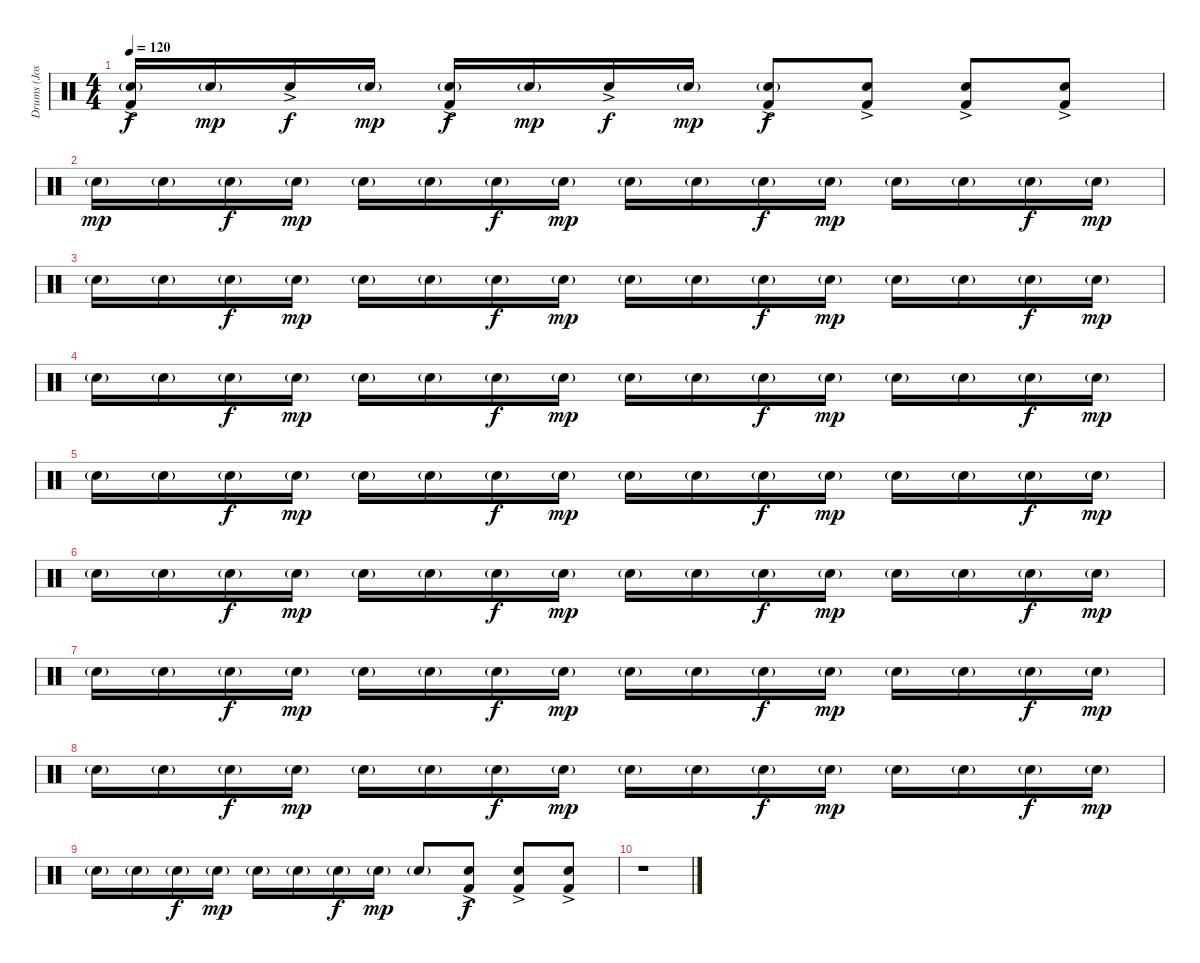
\track ("Drums (Josh Dun)" "Drums (Jos") {instrument percussion}
\staff {score}
\articulation defaults
\ts (4 4)
\tempo 120
\clef neutral
\ks c
("Snare (hit) 2"{g} "Kick (hit) 2"{ac}).16{dy f} "Snare (hit) 2"{g}.16{dy mp} "Electric Snare (hit)"{ac}.16{dy f} "Snare (hit) 2"{g}.16{dy mp} ("Snare (hit) 2"{g} "Kick (hit) 2"{ac}).16{dy f} "Snare (hit) 2"{g}.16{dy mp} "Electric Snare (hit)"{ac}.16{dy f} "Snare (hit) 2"{g}.16{dy mp} ("Snare (hit) 2"{g} "Kick (hit) 2"{ac}).8{dy f} ("Electric Snare (hit)"{ac} "Kick (hit) 2"{ac}).8 ("Electric Snare (hit)"{ac} "Kick (hit) 2"{ac}).8 ("Electric Snare (hit)"{ac} "Kick (hit) 2"{ac}).8 |
"Snare (hit) 2"{g}.16{dy mp} "Snare (hit) 2"{g}.16 "Electric Snare (hit)"{g}.16{dy f} "Snare (hit) 2"{g}.16{dy mp} "Snare (hit) 2"{g}.16 "Snare (hit) 2"{g}.16 "Electric Snare (hit)"{g}.16{dy f} "Snare (hit) 2"{g}.16{dy mp} "Snare (hit) 2"{g}.16 "Snare (hit) 2"{g}.16 "Electric Snare (hit)"{g}.16{dy f} "Snare (hit) 2"{g}.16{dy mp} "Snare (hit) 2"{g}.16 "Snare (hit) 2"{g}.16 "Electric Snare (hit)"{g}.16{dy f} "Snare (hit) 2"{g}.16{dy mp} |
"Snare (hit) 2"{g}.16 "Snare (hit) 2"{g}.16 "Electric Snare (hit)"{g}.16{dy f} "Snare (hit) 2"{g}.16{dy mp} "Snare (hit) 2"{g}.16 "Snare (hit) 2"{g}.16 "Electric Snare (hit)"{g}.16{dy f} "Snare (hit) 2"{g}.16{dy mp} "Snare (hit) 2"{g}.16 "Snare (hit) 2"{g}.16 "Electric Snare (hit)"{g}.16{dy f} "Snare (hit) 2"{g}.16{dy mp} "Snare (hit) 2"{g}.16 "Snare (hit) 2"{g}.16 "Electric Snare (hit)"{g}.16{dy f} "Snare (hit) 2"{g}.16{dy mp} |
"Snare (hit) 2"{g}.16 "Snare (hit) 2"{g}.16 "Electric Snare (hit)"{g}.16{dy f} "Snare (hit) 2"{g}.16{dy mp} "Snare (hit) 2"{g}.16 "Snare (hit) 2"{g}.16 "Electric Snare (hit)"{g}.16{dy f} "Snare (hit) 2"{g}.16{dy mp} "Snare (hit) 2"{g}.16 "Snare (hit) 2"{g}.16 "Electric Snare (hit)"{g}.16{dy f} "Snare (hit) 2"{g}.16{dy mp} "Snare (hit) 2"{g}.16 "Snare (hit) 2"{g}.16 "Electric Snare (hit)"{g}.16{dy f} "Snare (hit) 2"{g}.16{dy mp} |
"Snare (hit) 2"{g}.16 "Snare (hit) 2"{g}.16 "Electric Snare (hit)"{g}.16{dy f} "Snare (hit) 2"{g}.16{dy mp} "Snare (hit) 2"{g}.16 "Snare (hit) 2"{g}.16 "Electric Snare (hit)"{g}.16{dy f} "Snare (hit) 2"{g}.16{dy mp} "Snare (hit) 2"{g}.16 "Snare (hit) 2"{g}.16 "Electric Snare (hit)"{g}.16{dy f} "Snare (hit) 2"{g}.16{dy mp} "Snare (hit) 2"{g}.16 "Snare (hit) 2"{g}.16 "Electric Snare (hit)"{g}.16{dy f} "Snare (hit) 2"{g}.16{dy mp} |
"Snare (hit) 2"{g}.16 "Snare (hit) 2"{g}.16 "Electric Snare (hit)"{g}.16{dy f} "Snare (hit) 2"{g}.16{dy mp} "Snare (hit) 2"{g}.16 "Snare (hit) 2"{g}.16 "Electric Snare (hit)"{g}.16{dy f} "Snare (hit) 2"{g}.16{dy mp} "Snare (hit) 2"{g}.16 "Snare (hit) 2"{g}.16 "Electric Snare (hit)"{g}.16{dy f} "Snare (hit) 2"{g}.16{dy mp} "Snare (hit) 2"{g}.16 "Snare (hit) 2"{g}.16 "Electric Snare (hit)"{g}.16{dy f} "Snare (hit) 2"{g}.16{dy mp} |
"Snare (hit) 2"{g}.16 "Snare (hit) 2"{g}.16 "Electric Snare (hit)"{g}.16{dy f} "Snare (hit) 2"{g}.16{dy mp} "Snare (hit) 2"{g}.16 "Snare (hit) 2"{g}.16 "Electric Snare (hit)"{g}.16{dy f} "Snare (hit) 2"{g}.16{dy mp} "Snare (hit) 2"{g}.16 "Snare (hit) 2"{g}.16 "Electric Snare (hit)"{g}.16{dy f} "Snare (hit) 2"{g}.16{dy mp} "Snare (hit) 2"{g}.16 "Snare (hit) 2"{g}.16 "Electric Snare (hit)"{g}.16{dy f} "Snare (hit) 2"{g}.16{dy mp} |
"Snare (hit) 2"{g}.16 "Snare (hit) 2"{g}.16 "Electric Snare (hit)"{g}.16{dy f} "Snare (hit) 2"{g}.16{dy mp} "Snare (hit) 2"{g}.16 "Snare (hit) 2"{g}.16 "Electric Snare (hit)"{g}.16{dy f} "Snare (hit) 2"{g}.16{dy mp} "Snare (hit) 2"{g}.16 "Snare (hit) 2"{g}.16 "Electric Snare (hit)"{g}.16{dy f} "Snare (hit) 2"{g}.16{dy mp} "Snare (hit) 2"{g}.16 "Snare (hit) 2"{g}.16 "Electric Snare (hit)"{g}.16{dy f} "Snare (hit) 2"{g}.16{dy mp} |
"Snare (hit) 2"{g}.16 "Snare (hit) 2"{g}.16 "Electric Snare (hit)"{g}.16{dy f} "Snare (hit) 2"{g}.16{dy mp} "Snare (hit) 2"{g}.16 "Snare (hit) 2"{g}.16 "Electric Snare (hit)"{g}.16{dy f} "Snare (hit) 2"{g}.16{dy mp} "Snare (hit) 2"{g}.8 ("Electric Snare (hit)"{ac} "Kick (hit) 2"{ac}).8{dy f} ("Electric Snare (hit)"{ac} "Kick (hit) 2"{ac}).8 ("Electric Snare (hit)"{ac} "Kick (hit) 2"{ac}).8 |
r.1
